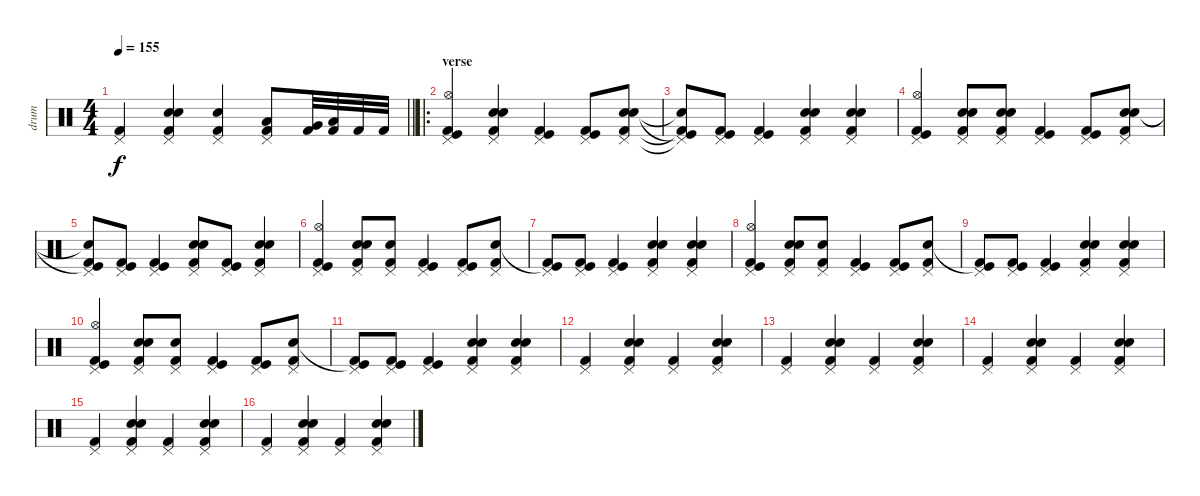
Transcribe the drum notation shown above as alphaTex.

\track ("drum" "drum") {instrument percussion}
\staff {score}
\articulation defaults
\ts (4 4)
\tempo 155
\clef neutral
\barLineRight lightlight
\ks c
("Pedal Hi-Hat (hit)" "Kick (hit) 2").4{dy f} ("Pedal Hi-Hat (hit)" "Electric Snare (hit)" "Snare (hit) 2" "Kick (hit) 2").4 ("Electric Snare (hit)" "Pedal Hi-Hat (hit)" "Kick (hit) 2").4 ("Pedal Hi-Hat (hit)" "Low Floor Tom (hit)" "Kick (hit) 2").8 ("Very Low Tom (hit)" "Kick (hit) 2").32 ("Low Tom (hit)" "Kick (hit) 2").32 "Kick (hit) 2".32 "Kick (hit) 2".32 |
\ro
\section ("" "verse")
("Pedal Hi-Hat (hit)" "Hi-Hat (open)" "Kick (hit)" "Kick (hit) 2").4 ("Pedal Hi-Hat (hit)" "Electric Snare (hit)" "Snare (hit) 2" "Kick (hit) 2").4 ("Pedal Hi-Hat (hit)" "Kick (hit)" "Kick (hit) 2").4 ("Pedal Hi-Hat (hit)" "Kick (hit)" "Kick (hit) 2").8 ("Pedal Hi-Hat (hit)" "Electric Snare (hit)" "Snare (hit) 2" "Kick (hit) 2").8 |
("Pedal Hi-Hat (hit)"{t} "Snare (hit)"{t} "Kick (hit)"{t} "Kick (hit) 2"{t}).8 ("Pedal Hi-Hat (hit)" "Kick (hit)" "Kick (hit) 2").8 ("Pedal Hi-Hat (hit)" "Kick (hit)" "Kick (hit) 2").4 ("Pedal Hi-Hat (hit)" "Electric Snare (hit)" "Snare (hit) 2" "Kick (hit) 2").4 ("Pedal Hi-Hat (hit)" "Electric Snare (hit)" "Snare (hit) 2" "Kick (hit) 2").4 |
("Pedal Hi-Hat (hit)" "Hi-Hat (open)" "Kick (hit)" "Kick (hit) 2").4 ("Pedal Hi-Hat (hit)" "Electric Snare (hit)" "Snare (hit) 2" "Kick (hit) 2").8 ("Pedal Hi-Hat (hit)" "Electric Snare (hit)" "Snare (hit) 2" "Kick (hit) 2").8 ("Pedal Hi-Hat (hit)" "Kick (hit)" "Kick (hit) 2").4 ("Pedal Hi-Hat (hit)" "Kick (hit)" "Kick (hit) 2").8 ("Pedal Hi-Hat (hit)" "Electric Snare (hit)" "Snare (hit) 2" "Kick (hit) 2").8 |
("Pedal Hi-Hat (hit)" "Snare (hit)"{t} "Kick (hit)"{t} "Kick (hit) 2").8 ("Pedal Hi-Hat (hit)" "Kick (hit)" "Kick (hit) 2").8 ("Pedal Hi-Hat (hit)" "Kick (hit)" "Kick (hit) 2").4 ("Pedal Hi-Hat (hit)" "Snare (hit) 2" "Electric Snare (hit)" "Kick (hit) 2").8 ("Pedal Hi-Hat (hit)" "Kick (hit)" "Kick (hit) 2").8 ("Pedal Hi-Hat (hit)" "Snare (hit) 2" "Electric Snare (hit)" "Kick (hit) 2").4 |
("Pedal Hi-Hat (hit)" "Hi-Hat (open)" "Kick (hit)" "Kick (hit) 2").4 ("Pedal Hi-Hat (hit)" "Electric Snare (hit)" "Snare (hit) 2" "Kick (hit) 2").8 ("Pedal Hi-Hat (hit)" "Snare (hit) 2" "Kick (hit) 2").8 ("Pedal Hi-Hat (hit)" "Kick (hit)" "Kick (hit) 2").4 ("Pedal Hi-Hat (hit)" "Kick (hit)" "Kick (hit) 2").8 ("Pedal Hi-Hat (hit)" "Snare (hit) 2" "Kick (hit) 2").8 |
("Pedal Hi-Hat (hit)" "Kick (hit)"{t} "Kick (hit) 2").8 ("Pedal Hi-Hat (hit)" "Kick (hit)" "Kick (hit) 2").8 ("Pedal Hi-Hat (hit)" "Kick (hit)" "Kick (hit) 2").4 ("Pedal Hi-Hat (hit)" "Electric Snare (hit)" "Snare (hit) 2" "Kick (hit) 2").4 ("Pedal Hi-Hat (hit)" "Electric Snare (hit)" "Snare (hit) 2" "Kick (hit) 2").4 |
("Pedal Hi-Hat (hit)" "Hi-Hat (open)" "Kick (hit)" "Kick (hit) 2").4 ("Pedal Hi-Hat (hit)" "Electric Snare (hit)" "Snare (hit) 2" "Kick (hit) 2").8 ("Pedal Hi-Hat (hit)" "Snare (hit) 2" "Kick (hit) 2").8 ("Pedal Hi-Hat (hit)" "Kick (hit)" "Kick (hit) 2").4 ("Pedal Hi-Hat (hit)" "Kick (hit)" "Kick (hit) 2").8 ("Pedal Hi-Hat (hit)" "Snare (hit) 2" "Kick (hit) 2").8 |
("Pedal Hi-Hat (hit)" "Kick (hit)"{t} "Kick (hit) 2").8 ("Pedal Hi-Hat (hit)" "Kick (hit)" "Kick (hit) 2").8 ("Pedal Hi-Hat (hit)" "Kick (hit)" "Kick (hit) 2").4 ("Pedal Hi-Hat (hit)" "Electric Snare (hit)" "Snare (hit) 2" "Kick (hit) 2").4 ("Pedal Hi-Hat (hit)" "Electric Snare (hit)" "Snare (hit) 2" "Kick (hit) 2").4 |
("Pedal Hi-Hat (hit)" "Hi-Hat (open)" "Kick (hit)" "Kick (hit) 2").4 ("Pedal Hi-Hat (hit)" "Electric Snare (hit)" "Snare (hit) 2" "Kick (hit) 2").8 ("Pedal Hi-Hat (hit)" "Snare (hit) 2" "Kick (hit) 2").8 ("Pedal Hi-Hat (hit)" "Kick (hit)" "Kick (hit) 2").4 ("Pedal Hi-Hat (hit)" "Kick (hit)" "Kick (hit) 2").8 ("Pedal Hi-Hat (hit)" "Snare (hit) 2" "Kick (hit) 2").8 |
("Pedal Hi-Hat (hit)" "Kick (hit)"{t} "Kick (hit) 2").8 ("Pedal Hi-Hat (hit)" "Kick (hit)" "Kick (hit) 2").8 ("Pedal Hi-Hat (hit)" "Kick (hit)" "Kick (hit) 2").4 ("Pedal Hi-Hat (hit)" "Electric Snare (hit)" "Snare (hit) 2" "Kick (hit) 2").4 ("Pedal Hi-Hat (hit)" "Electric Snare (hit)" "Snare (hit) 2" "Kick (hit) 2").4 |
("Pedal Hi-Hat (hit)" "Kick (hit) 2").4 ("Pedal Hi-Hat (hit)" "Electric Snare (hit)" "Snare (hit) 2" "Kick (hit) 2").4 ("Pedal Hi-Hat (hit)" "Kick (hit) 2").4 ("Pedal Hi-Hat (hit)" "Electric Snare (hit)" "Snare (hit) 2" "Kick (hit) 2").4 |
("Pedal Hi-Hat (hit)" "Kick (hit) 2").4 ("Pedal Hi-Hat (hit)" "Electric Snare (hit)" "Snare (hit) 2" "Kick (hit) 2").4 ("Pedal Hi-Hat (hit)" "Kick (hit) 2").4 ("Pedal Hi-Hat (hit)" "Electric Snare (hit)" "Snare (hit) 2" "Kick (hit) 2").4 |
("Pedal Hi-Hat (hit)" "Kick (hit) 2").4 ("Pedal Hi-Hat (hit)" "Electric Snare (hit)" "Snare (hit) 2" "Kick (hit) 2").4 ("Pedal Hi-Hat (hit)" "Kick (hit) 2").4 ("Pedal Hi-Hat (hit)" "Electric Snare (hit)" "Snare (hit) 2" "Kick (hit) 2").4 |
("Pedal Hi-Hat (hit)" "Kick (hit) 2").4 ("Pedal Hi-Hat (hit)" "Electric Snare (hit)" "Snare (hit) 2" "Kick (hit) 2").4 ("Pedal Hi-Hat (hit)" "Kick (hit) 2").4 ("Pedal Hi-Hat (hit)" "Electric Snare (hit)" "Snare (hit) 2" "Kick (hit) 2").4 |
("Pedal Hi-Hat (hit)" "Kick (hit) 2").4 ("Pedal Hi-Hat (hit)" "Electric Snare (hit)" "Snare (hit) 2" "Kick (hit) 2").4 ("Pedal Hi-Hat (hit)" "Kick (hit) 2").4 ("Pedal Hi-Hat (hit)" "Electric Snare (hit)" "Snare (hit) 2" "Kick (hit) 2").4
